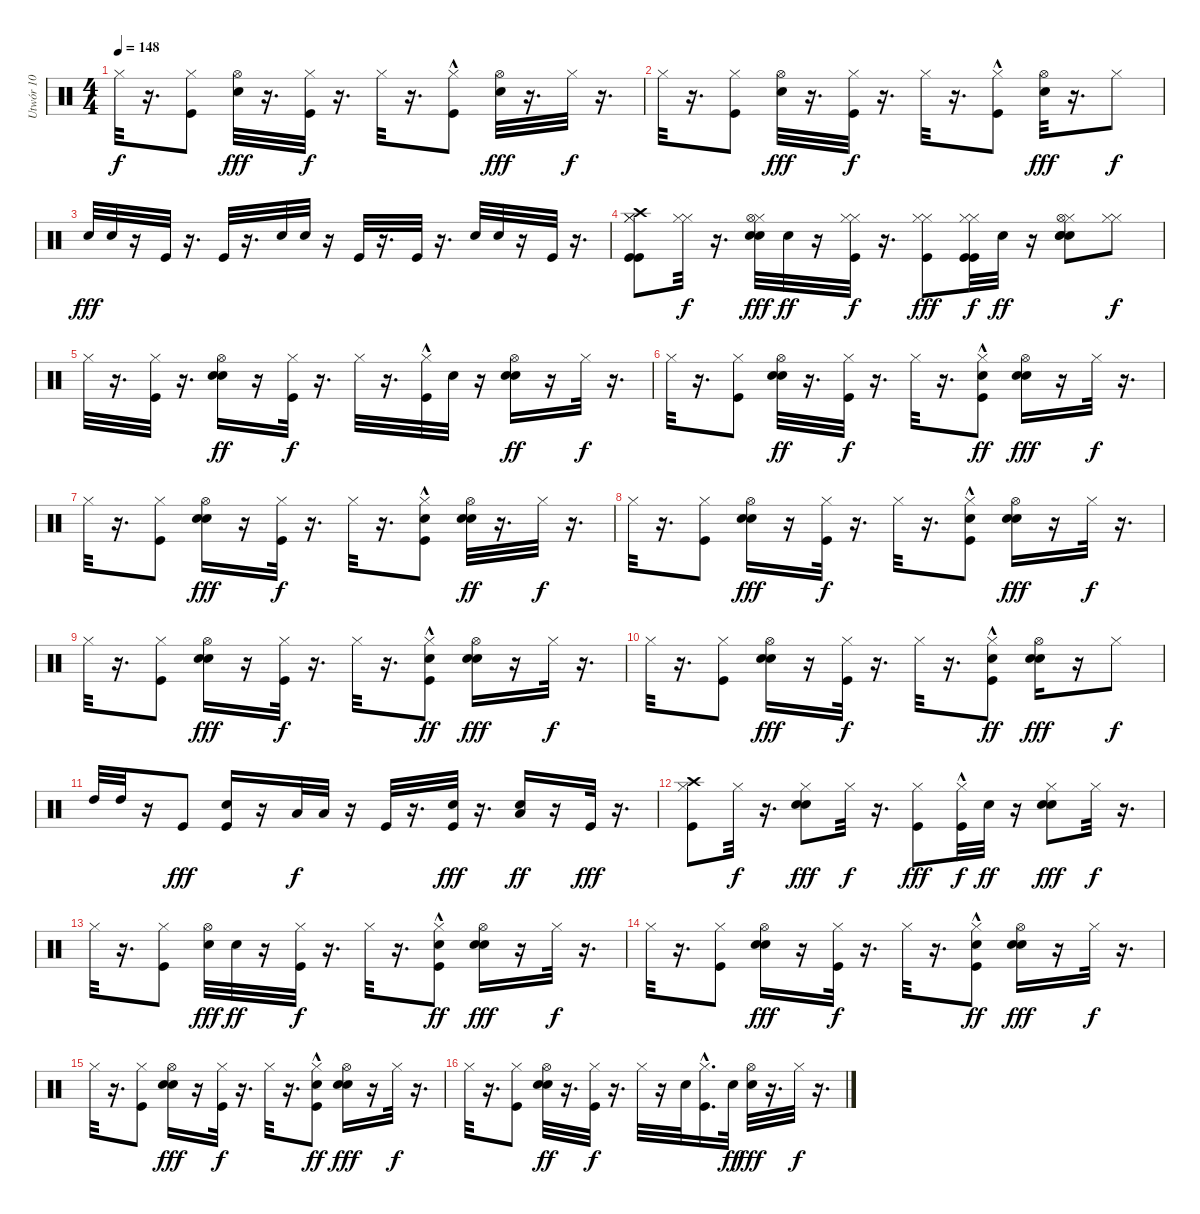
\track ("Utwór 10" "Utwór 10") {instrument percussion}
\staff {score}
\articulation defaults
\ts (4 4)
\tempo 148
\clef neutral
\ks c "Hi-Hat (closed)".32{dy f}
r.16{d} ("Hi-Hat (closed)" "Kick (hit)").8 ("Hi-Hat (open)" "Electric Snare (hit)").32{dy fff} r.16{d} ("Hi-Hat (closed)" "Kick (hit)").32{dy f} r.16{d} "Hi-Hat (closed)".32 r.16{d} ("Hi-Hat (closed)" "Kick (hit)"{hac}).8 ("Hi-Hat (open)" "Electric Snare (hit)").32{dy fff} r.16{d} "Hi-Hat (closed)".32{dy f} r.16{d} |
"Hi-Hat (closed)".32 r.16{d} ("Hi-Hat (closed)" "Kick (hit)").8 ("Hi-Hat (open)" "Electric Snare (hit)").32{dy fff} r.16{d} ("Hi-Hat (closed)" "Kick (hit)").32{dy f} r.16{d} "Hi-Hat (closed)".32 r.16{d} ("Hi-Hat (closed)" "Kick (hit)"{hac}).8 ("Hi-Hat (open)" "Electric Snare (hit)").32{dy fff} r.16{d} "Hi-Hat (closed)".8{dy f} |
"Electric Snare (hit)".32{dy fff} "Electric Snare (hit)".32 r.16 "Kick (hit)".32 r.16{d} "Kick (hit)".32 r.16{d} "Electric Snare (hit)".32 "Electric Snare (hit)".32 r.16 "Kick (hit)".32 r.16{d} "Kick (hit)".32 r.16{d} "Electric Snare (hit)".32 "Electric Snare (hit)".32 r.16 "Kick (hit)".32 r.16{d} |
("Crash high (hit)" "Hi-Hat (closed)" "Kick (hit)" "Hi-Hat (closed)" "Kick (hit)").8 ("Hi-Hat (closed)" "Hi-Hat (closed)").32{dy f} r.16{d} ("Hi-Hat (closed)" "Electric Snare (hit)" "Hi-Hat (open)" "Electric Snare (hit)").32{dy fff} "Hand Clap (hit)".32{dy ff} r.16 ("Hi-Hat (closed)" "Hi-Hat (closed)" "Kick (hit)").32{dy f} r.16{d} ("Hi-Hat (closed)" "Hi-Hat (closed)" "Kick (hit)").8{dy fff} ("Hi-Hat (closed)" "Kick (hit)" "Hi-Hat (closed)" "Kick (hit)").32{dy f} "Hand Clap (hit)".32{dy ff} r.16 ("Hi-Hat (closed)" "Electric Snare (hit)" "Hi-Hat (open)" "Electric Snare (hit)" "Hand Clap (hit)").8 ("Hi-Hat (closed)" "Hi-Hat (closed)").8{dy f} |
"Hi-Hat (closed)".32 r.16{d} ("Hi-Hat (closed)" "Kick (hit)").32 r.16{d} ("Hi-Hat (open)" "Electric Snare (hit)" "Hand Clap (hit)").16{dy ff} r.16 ("Hi-Hat (closed)" "Kick (hit)").32{dy f} r.16{d} "Hi-Hat (closed)".32 r.16{d} ("Hi-Hat (closed)" "Kick (hit)"{hac}).32 "Hand Clap (hit)".32 r.16 ("Hi-Hat (open)" "Electric Snare (hit)" "Hand Clap (hit)").16{dy ff} r.16 "Hi-Hat (closed)".32{dy f} r.16{d} |
"Hi-Hat (closed)".32 r.16{d} ("Hi-Hat (closed)" "Kick (hit)").8 ("Hi-Hat (open)" "Electric Snare (hit)" "Hand Clap (hit)").32{dy ff} r.16{d} ("Hi-Hat (closed)" "Kick (hit)").32{dy f} r.16{d} "Hi-Hat (closed)".32 r.16{d} ("Hand Clap (hit)" "Hi-Hat (closed)" "Kick (hit)"{hac}).8{dy ff} ("Hand Clap (hit)" "Hi-Hat (open)" "Electric Snare (hit)").16{dy fff} r.16 "Hi-Hat (closed)".32{dy f} r.16{d} |
"Hi-Hat (closed)".32 r.16{d} ("Hi-Hat (closed)" "Kick (hit)").8 ("Hand Clap (hit)" "Hi-Hat (open)" "Electric Snare (hit)").16{dy fff} r.16 ("Hi-Hat (closed)" "Kick (hit)").32{dy f} r.16{d} "Hi-Hat (closed)".32 r.16{d} ("Hi-Hat (closed)" "Kick (hit)"{hac} "Hand Clap (hit)").8 ("Hi-Hat (open)" "Electric Snare (hit)" "Hand Clap (hit)").32{dy ff} r.16{d} "Hi-Hat (closed)".32{dy f} r.16{d} |
"Hi-Hat (closed)".32 r.16{d} ("Hi-Hat (closed)" "Kick (hit)").8 ("Hand Clap (hit)" "Hi-Hat (open)" "Electric Snare (hit)").16{dy fff} r.16 ("Hi-Hat (closed)" "Kick (hit)").32{dy f} r.16{d} "Hi-Hat (closed)".32 r.16{d} ("Hand Clap (hit)" "Hi-Hat (closed)" "Kick (hit)"{hac}).8 ("Hand Clap (hit)" "Hi-Hat (open)" "Electric Snare (hit)").16{dy fff} r.16 "Hi-Hat (closed)".32{dy f} r.16{d} |
"Hi-Hat (closed)".32 r.16{d} ("Hi-Hat (closed)" "Kick (hit)").8 ("Hand Clap (hit)" "Hi-Hat (open)" "Electric Snare (hit)").16{dy fff} r.16 ("Hi-Hat (closed)" "Kick (hit)").32{dy f} r.16{d} "Hi-Hat (closed)".32 r.16{d} ("Hi-Hat (closed)" "Kick (hit)"{hac} "Hand Clap (hit)").8{dy ff} ("Hand Clap (hit)" "Hi-Hat (open)" "Electric Snare (hit)").16{dy fff} r.16 "Hi-Hat (closed)".32{dy f} r.16{d} |
"Hi-Hat (closed)".32 r.16{d} ("Hi-Hat (closed)" "Kick (hit)").8 ("Hand Clap (hit)" "Hi-Hat (open)" "Electric Snare (hit)").16{dy fff} r.16 ("Hi-Hat (closed)" "Kick (hit)").32{dy f} r.16{d} "Hi-Hat (closed)".32 r.16{d} ("Hi-Hat (closed)" "Kick (hit)"{hac} "Hand Clap (hit)").8{dy ff} ("Hi-Hat (open)" "Hand Clap (hit)" "Electric Snare (hit)").16{dy fff} r.16 "Hi-Hat (closed)".8{dy f} |
"High Tom (hit)".32 "High Tom (hit)".32 r.16 "Kick (hit)".8{dy fff} ("Hand Clap (hit)" "Kick (hit)").16 r.16 "Low Tom (hit)".32{dy f} "Low Tom (hit)".32 r.16 "Kick (hit)".32 r.16{d} ("Hand Clap (hit)" "Kick (hit)").32{dy fff} r.16{d} ("Hand Clap (hit)" "Low Floor Tom (hit)").16{dy ff} r.16 "Kick (hit)".32{dy fff} r.16{d} |
("Crash high (hit)" "Hi-Hat (closed)" "Kick (hit)").8 "Hi-Hat (closed)".32{dy f} r.16{d} ("Hand Clap (hit)" "Hi-Hat (closed)" "Electric Snare (hit)").8{dy fff} "Hi-Hat (closed)".32{dy f} r.16{d} ("Hi-Hat (closed)" "Kick (hit)").8{dy fff} ("Hi-Hat (closed)" "Kick (hit)"{hac}).32{dy f} "Hand Clap (hit)".32{dy ff} r.16 ("Hi-Hat (closed)" "Hand Clap (hit)" "Electric Snare (hit)").8{dy fff} "Hi-Hat (closed)".32{dy f} r.16{d} |
"Hi-Hat (closed)".32 r.16{d} ("Hi-Hat (closed)" "Kick (hit)").8 ("Hi-Hat (open)" "Electric Snare (hit)").32{dy fff} "Hand Clap (hit)".32{dy ff} r.16 ("Hi-Hat (closed)" "Kick (hit)").32{dy f} r.16{d} "Hi-Hat (closed)".32 r.16{d} ("Hi-Hat (closed)" "Kick (hit)"{hac} "Hand Clap (hit)").8{dy ff} ("Hand Clap (hit)" "Hi-Hat (open)" "Electric Snare (hit)").16{dy fff} r.16 "Hi-Hat (closed)".32{dy f} r.16{d} |
"Hi-Hat (closed)".32 r.16{d} ("Hi-Hat (closed)" "Kick (hit)").8 ("Hand Clap (hit)" "Hi-Hat (open)" "Electric Snare (hit)").16{dy fff} r.16 ("Hi-Hat (closed)" "Kick (hit)").32{dy f} r.16{d} "Hi-Hat (closed)".32 r.16{d} ("Hand Clap (hit)" "Hi-Hat (closed)" "Kick (hit)"{hac}).8{dy ff} ("Hand Clap (hit)" "Hi-Hat (open)" "Electric Snare (hit)").16{dy fff} r.16 "Hi-Hat (closed)".32{dy f} r.16{d} |
"Hi-Hat (closed)".32 r.16{d} ("Hi-Hat (closed)" "Kick (hit)").8 ("Hand Clap (hit)" "Hi-Hat (open)" "Electric Snare (hit)").16{dy fff} r.16 ("Hi-Hat (closed)" "Kick (hit)").32{dy f} r.16{d} "Hi-Hat (closed)".32 r.16{d} ("Hi-Hat (closed)" "Kick (hit)"{hac} "Hand Clap (hit)").8{dy ff} ("Hand Clap (hit)" "Hi-Hat (open)" "Electric Snare (hit)").16{dy fff} r.16 "Hi-Hat (closed)".32{dy f} r.16{d} |
"Hi-Hat (closed)".32 r.16{d} ("Hi-Hat (closed)" "Kick (hit)").8 ("Hi-Hat (open)" "Electric Snare (hit)" "Hand Clap (hit)").32{dy ff} r.16{d} ("Hi-Hat (closed)" "Kick (hit)").32{dy f} r.16{d} "Hi-Hat (closed)".32 r.16 "Hand Clap (hit)".32 ("Hi-Hat (closed)" "Kick (hit)"{hac}).16{d} "Hand Clap (hit)".32{dy ff} ("Hi-Hat (open)" "Electric Snare (hit)").32{dy fff} r.16{d} "Hi-Hat (closed)".32{dy f} r.16{d}
